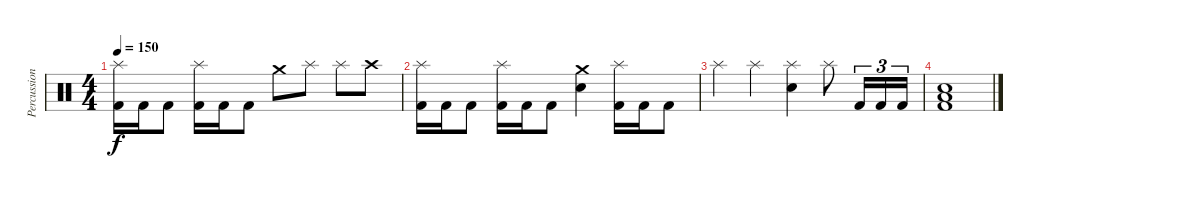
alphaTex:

\track ("Percussion" "Percussion") {instrument percussion}
\staff {score}
\articulation defaults
\ts (4 4)
\tempo 150
\clef neutral
\ks c
("Splash (hit)" "Kick (hit) 2").16{dy f} "Kick (hit) 2".16 "Kick (hit) 2".8 ("Splash (hit)" "Kick (hit) 2").16 "Kick (hit) 2".16 "Kick (hit) 2".8 "Crash medium (hit)".8 "Splash (hit)".8 "Splash (hit)".8 "Crash high (hit)".8 |
("Splash (hit)" "Kick (hit) 2").16 "Kick (hit) 2".16 "Kick (hit) 2".8 ("Splash (hit)" "Kick (hit) 2").16 "Kick (hit) 2".16 "Kick (hit) 2".8 ("Crash medium (hit)" "Electric Snare (hit)").4 ("Splash (hit)" "Kick (hit) 2").16 "Kick (hit) 2".16 "Kick (hit) 2".8 |
"Splash (hit)".4 "Splash (hit)".4 ("Splash (hit)" "Electric Snare (hit)").4 "Splash (hit)".8 "Kick (hit) 2".16{tu (3 2)} "Kick (hit) 2".16{tu (3 2)} "Kick (hit) 2".16{tu (3 2)} |
("Low Floor Tom (hit)" "Electric Snare (hit)" "Kick (hit) 2").1
